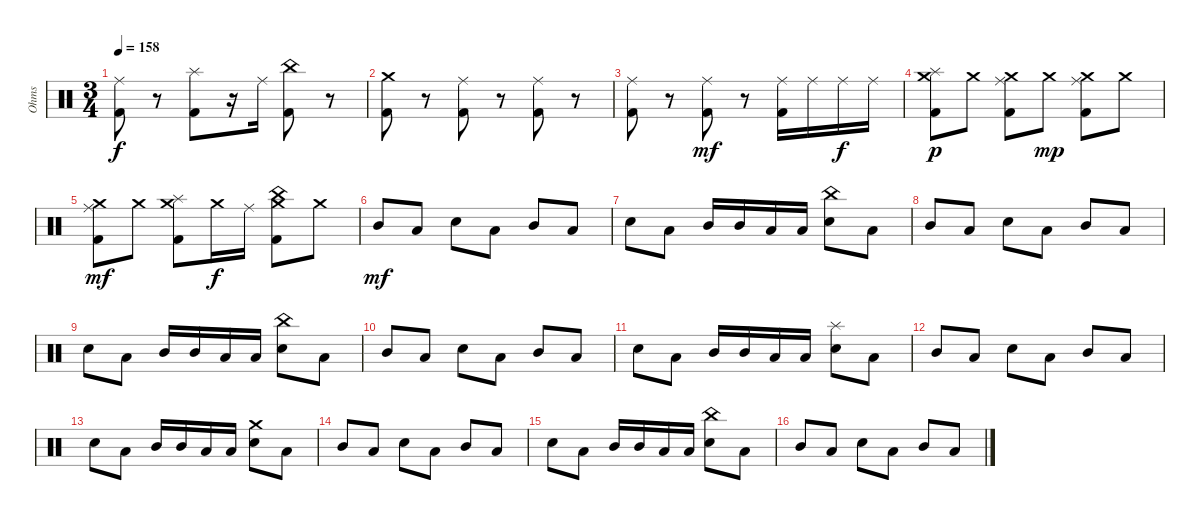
\track ("Ohms" "Ohms") {instrument percussion}
\staff {score}
\articulation defaults
\ts (3 4)
\tempo 158
\clef neutral
\ks c
("Ride (middle)" "Kick (hit) 2").8{dy f} r.8 ("Splash (hit)" "Kick (hit) 2").8 r.16 "Ride (middle)".16 ("China (hit)" "Kick (hit) 2").8 r.8 |
("Crash medium (hit)" "Kick (hit) 2").8 r.8 ("Ride (middle)" "Kick (hit) 2").8 r.8 ("Ride (middle)" "Kick (hit) 2").8 r.8 |
("Ride (middle)" "Kick (hit) 2").8 r.8 ("Ride (middle)" "Kick (hit) 2").8{dy mf} r.8 ("Ride (middle)" "Kick (hit) 2").16 "Ride (middle)".16 "Ride (middle)".16{dy f} "Ride (middle)".16 |
("Splash (hit)" "Crash medium (hit)" "Kick (hit) 2").8{dy p} "Crash medium (hit)".8 ("Ride (middle)" "Crash medium (hit)" "Kick (hit) 2").8 "Crash medium (hit)".8{dy mp} ("Ride (middle)" "Crash medium (hit)" "Kick (hit) 2").8 "Crash medium (hit)".8 |
("Ride (middle)" "Crash medium (hit)" "Kick (hit) 2").8{dy mf} "Crash medium (hit)".8 ("Splash (hit)" "Crash medium (hit)" "Kick (hit) 2").8 "Crash medium (hit)".16{dy f} "Ride (middle)".16 ("China (hit)" "Crash medium (hit)" "Kick (hit) 2").8 "Crash medium (hit)".8 |
"Mid Tom (hit)".8{dy mf} "Low Tom (hit)".8 "Snare (hit) 2".8 "Low Tom (hit)".8 "Mid Tom (hit)".8 "Low Tom (hit)".8 |
"Snare (hit) 2".8 "Low Tom (hit)".8 "Mid Tom (hit)".16 "Mid Tom (hit)".16 "Low Tom (hit)".16 "Low Tom (hit)".16 ("China (hit)" "Snare (hit) 2").8 "Low Tom (hit)".8 |
"Mid Tom (hit)".8 "Low Tom (hit)".8 "Snare (hit) 2".8 "Low Tom (hit)".8 "Mid Tom (hit)".8 "Low Tom (hit)".8 |
"Snare (hit) 2".8 "Low Tom (hit)".8 "Mid Tom (hit)".16 "Mid Tom (hit)".16 "Low Tom (hit)".16 "Low Tom (hit)".16 ("China (hit)" "Snare (hit) 2").8 "Low Tom (hit)".8 |
"Mid Tom (hit)".8 "Low Tom (hit)".8 "Snare (hit) 2".8 "Low Tom (hit)".8 "Mid Tom (hit)".8 "Low Tom (hit)".8 |
"Snare (hit) 2".8 "Low Tom (hit)".8 "Mid Tom (hit)".16 "Mid Tom (hit)".16 "Low Tom (hit)".16 "Low Tom (hit)".16 ("Splash (hit)" "Snare (hit) 2").8 "Low Tom (hit)".8 |
"Mid Tom (hit)".8 "Low Tom (hit)".8 "Snare (hit) 2".8 "Low Tom (hit)".8 "Mid Tom (hit)".8 "Low Tom (hit)".8 |
"Snare (hit) 2".8 "Low Tom (hit)".8 "Mid Tom (hit)".16 "Mid Tom (hit)".16 "Low Tom (hit)".16 "Low Tom (hit)".16 ("Crash medium (hit)" "Snare (hit) 2").8 "Low Tom (hit)".8 |
"Mid Tom (hit)".8 "Low Tom (hit)".8 "Snare (hit) 2".8 "Low Tom (hit)".8 "Mid Tom (hit)".8 "Low Tom (hit)".8 |
"Snare (hit) 2".8 "Low Tom (hit)".8 "Mid Tom (hit)".16 "Mid Tom (hit)".16 "Low Tom (hit)".16 "Low Tom (hit)".16 ("China (hit)" "Snare (hit) 2").8 "Low Tom (hit)".8 |
"Mid Tom (hit)".8 "Low Tom (hit)".8 "Snare (hit) 2".8 "Low Tom (hit)".8 "Mid Tom (hit)".8 "Low Tom (hit)".8
